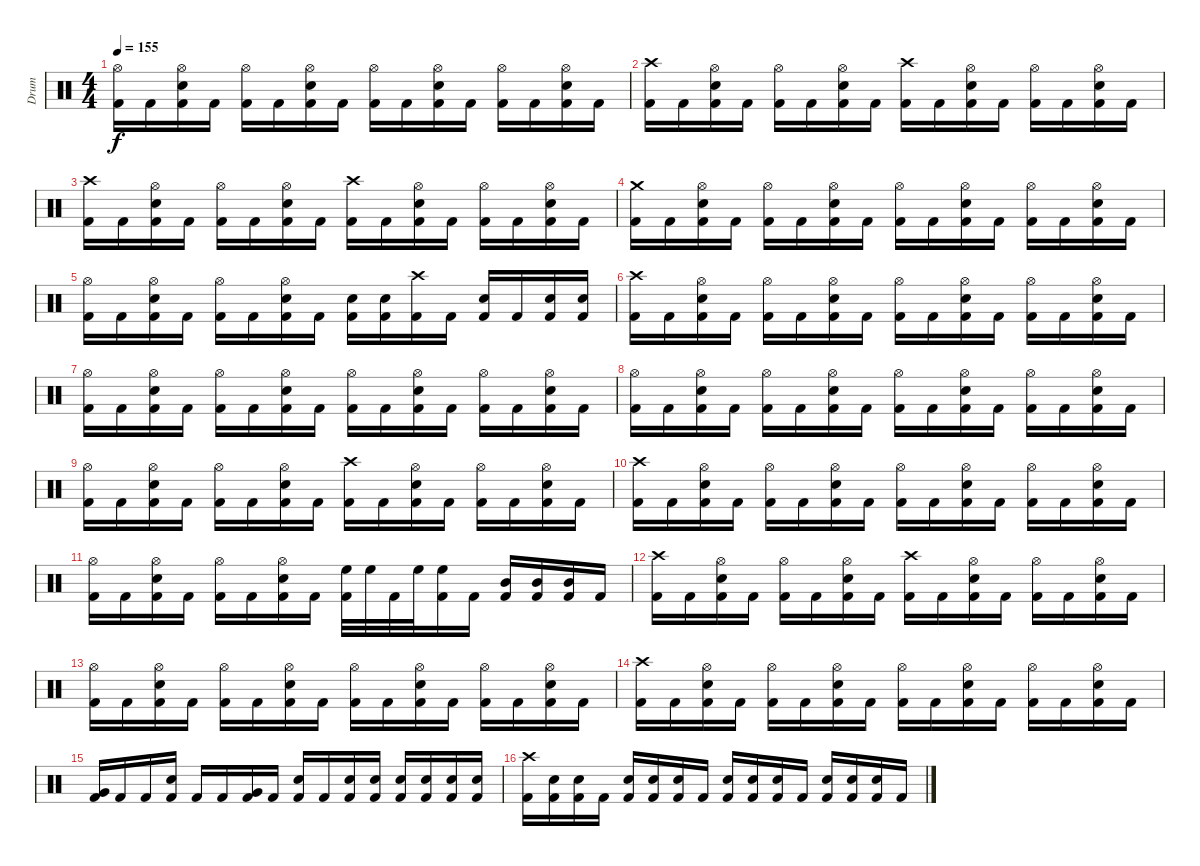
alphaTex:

\track ("Drum" "Drum") {instrument percussion}
\staff {score}
\articulation defaults
\ts (4 4)
\tempo 155
\clef neutral
\ks c
("Kick (hit) 2" "Hi-Hat (open)").16{dy f} "Kick (hit) 2".16 ("Kick (hit) 2" "Hi-Hat (open)" "Snare (hit) 2").16 "Kick (hit) 2".16 ("Kick (hit) 2" "Hi-Hat (open)").16 "Kick (hit) 2".16 ("Kick (hit) 2" "Hi-Hat (open)" "Snare (hit) 2").16 "Kick (hit) 2".16 ("Kick (hit) 2" "Hi-Hat (open)").16 "Kick (hit) 2".16 ("Kick (hit) 2" "Hi-Hat (open)" "Snare (hit) 2").16 "Kick (hit) 2".16 ("Kick (hit) 2" "Hi-Hat (open)").16 "Kick (hit) 2".16 ("Kick (hit) 2" "Hi-Hat (open)" "Snare (hit) 2").16 "Kick (hit) 2".16 |
("Kick (hit) 2" "Crash high (hit)").16 "Kick (hit) 2".16 ("Kick (hit) 2" "Hi-Hat (open)" "Snare (hit) 2").16 "Kick (hit) 2".16 ("Kick (hit) 2" "Hi-Hat (open)").16 "Kick (hit) 2".16 ("Kick (hit) 2" "Hi-Hat (open)" "Snare (hit) 2").16 "Kick (hit) 2".16 ("Kick (hit) 2" "Crash high (hit)").16 "Kick (hit) 2".16 ("Kick (hit) 2" "Hi-Hat (open)" "Snare (hit) 2").16 "Kick (hit) 2".16 ("Kick (hit) 2" "Hi-Hat (open)").16 "Kick (hit) 2".16 ("Kick (hit) 2" "Hi-Hat (open)" "Snare (hit) 2").16 "Kick (hit) 2".16 |
("Kick (hit) 2" "Crash high (hit)").16 "Kick (hit) 2".16 ("Kick (hit) 2" "Hi-Hat (open)" "Snare (hit) 2").16 "Kick (hit) 2".16 ("Kick (hit) 2" "Hi-Hat (open)").16 "Kick (hit) 2".16 ("Kick (hit) 2" "Hi-Hat (open)" "Snare (hit) 2").16 "Kick (hit) 2".16 ("Kick (hit) 2" "Crash high (hit)").16 "Kick (hit) 2".16 ("Kick (hit) 2" "Hi-Hat (open)" "Snare (hit) 2").16 "Kick (hit) 2".16 ("Kick (hit) 2" "Hi-Hat (open)").16 "Kick (hit) 2".16 ("Kick (hit) 2" "Hi-Hat (open)" "Snare (hit) 2").16 "Kick (hit) 2".16 |
("Kick (hit) 2" "Crash medium (hit)").16 "Kick (hit) 2".16 ("Kick (hit) 2" "Hi-Hat (open)" "Snare (hit) 2").16 "Kick (hit) 2".16 ("Kick (hit) 2" "Hi-Hat (open)").16 "Kick (hit) 2".16 ("Kick (hit) 2" "Hi-Hat (open)" "Snare (hit) 2").16 "Kick (hit) 2".16 ("Kick (hit) 2" "Hi-Hat (open)").16 "Kick (hit) 2".16 ("Kick (hit) 2" "Hi-Hat (open)" "Snare (hit) 2").16 "Kick (hit) 2".16 ("Kick (hit) 2" "Hi-Hat (open)").16 "Kick (hit) 2".16 ("Kick (hit) 2" "Hi-Hat (open)" "Snare (hit) 2").16 "Kick (hit) 2".16 |
("Kick (hit) 2" "Hi-Hat (open)").16 "Kick (hit) 2".16 ("Kick (hit) 2" "Hi-Hat (open)" "Snare (hit) 2").16 "Kick (hit) 2".16 ("Kick (hit) 2" "Hi-Hat (open)").16 "Kick (hit) 2".16 ("Kick (hit) 2" "Hi-Hat (open)" "Snare (hit) 2").16 "Kick (hit) 2".16 ("Kick (hit) 2" "Snare (hit) 2").16 ("Kick (hit) 2" "Snare (hit) 2").16 ("Kick (hit) 2" "Crash high (hit)").16 "Kick (hit) 2".16 ("Kick (hit) 2" "Snare (hit) 2").16 "Kick (hit) 2".16 ("Kick (hit) 2" "Snare (hit) 2").16 ("Kick (hit) 2" "Snare (hit) 2").16 |
("Kick (hit) 2" "Crash high (hit)").16 "Kick (hit) 2".16 ("Kick (hit) 2" "Hi-Hat (open)" "Snare (hit) 2").16 "Kick (hit) 2".16 ("Kick (hit) 2" "Hi-Hat (open)").16 "Kick (hit) 2".16 ("Kick (hit) 2" "Hi-Hat (open)" "Snare (hit) 2").16 "Kick (hit) 2".16 ("Kick (hit) 2" "Hi-Hat (open)").16 "Kick (hit) 2".16 ("Kick (hit) 2" "Hi-Hat (open)" "Snare (hit) 2").16 "Kick (hit) 2".16 ("Kick (hit) 2" "Hi-Hat (open)").16 "Kick (hit) 2".16 ("Kick (hit) 2" "Hi-Hat (open)" "Snare (hit) 2").16 "Kick (hit) 2".16 |
("Kick (hit) 2" "Hi-Hat (open)").16 "Kick (hit) 2".16 ("Kick (hit) 2" "Hi-Hat (open)" "Snare (hit) 2").16 "Kick (hit) 2".16 ("Kick (hit) 2" "Hi-Hat (open)").16 "Kick (hit) 2".16 ("Kick (hit) 2" "Hi-Hat (open)" "Snare (hit) 2").16 "Kick (hit) 2".16 ("Kick (hit) 2" "Hi-Hat (open)").16 "Kick (hit) 2".16 ("Kick (hit) 2" "Hi-Hat (open)" "Snare (hit) 2").16 "Kick (hit) 2".16 ("Kick (hit) 2" "Hi-Hat (open)").16 "Kick (hit) 2".16 ("Kick (hit) 2" "Hi-Hat (open)" "Snare (hit) 2").16 "Kick (hit) 2".16 |
("Kick (hit) 2" "Hi-Hat (open)").16 "Kick (hit) 2".16 ("Kick (hit) 2" "Hi-Hat (open)" "Snare (hit) 2").16 "Kick (hit) 2".16 ("Kick (hit) 2" "Hi-Hat (open)").16 "Kick (hit) 2".16 ("Kick (hit) 2" "Hi-Hat (open)" "Snare (hit) 2").16 "Kick (hit) 2".16 ("Kick (hit) 2" "Hi-Hat (open)").16 "Kick (hit) 2".16 ("Kick (hit) 2" "Hi-Hat (open)" "Snare (hit) 2").16 "Kick (hit) 2".16 ("Kick (hit) 2" "Hi-Hat (open)").16 "Kick (hit) 2".16 ("Kick (hit) 2" "Hi-Hat (open)" "Snare (hit) 2").16 "Kick (hit) 2".16 |
("Kick (hit) 2" "Hi-Hat (open)").16 "Kick (hit) 2".16 ("Kick (hit) 2" "Hi-Hat (open)" "Snare (hit) 2").16 "Kick (hit) 2".16 ("Kick (hit) 2" "Hi-Hat (open)").16 "Kick (hit) 2".16 ("Kick (hit) 2" "Hi-Hat (open)" "Snare (hit) 2").16 "Kick (hit) 2".16 ("Kick (hit) 2" "Crash high (hit)").16 "Kick (hit) 2".16 ("Kick (hit) 2" "Hi-Hat (open)" "Snare (hit) 2").16 "Kick (hit) 2".16 ("Kick (hit) 2" "Hi-Hat (open)").16 "Kick (hit) 2".16 ("Kick (hit) 2" "Hi-Hat (open)" "Snare (hit) 2").16 "Kick (hit) 2".16 |
("Kick (hit) 2" "Crash high (hit)").16 "Kick (hit) 2".16 ("Kick (hit) 2" "Hi-Hat (open)" "Snare (hit) 2").16 "Kick (hit) 2".16 ("Kick (hit) 2" "Hi-Hat (open)").16 "Kick (hit) 2".16 ("Kick (hit) 2" "Hi-Hat (open)" "Snare (hit) 2").16 "Kick (hit) 2".16 ("Kick (hit) 2" "Hi-Hat (open)").16 "Kick (hit) 2".16 ("Kick (hit) 2" "Hi-Hat (open)" "Snare (hit) 2").16 "Kick (hit) 2".16 ("Kick (hit) 2" "Hi-Hat (open)").16 "Kick (hit) 2".16 ("Kick (hit) 2" "Hi-Hat (open)" "Snare (hit) 2").16 "Kick (hit) 2".16 |
("Kick (hit) 2" "Hi-Hat (open)").16 "Kick (hit) 2".16 ("Kick (hit) 2" "Hi-Hat (open)" "Snare (hit) 2").16 "Kick (hit) 2".16 ("Kick (hit) 2" "Hi-Hat (open)").16 "Kick (hit) 2".16 ("Kick (hit) 2" "Hi-Hat (open)" "Snare (hit) 2").16 "Kick (hit) 2".16 ("Kick (hit) 2" "High Floor Tom (hit)").32 "High Floor Tom (hit)".32 "Kick (hit) 2".32 "High Floor Tom (hit)".32 ("Kick (hit) 2" "High Floor Tom (hit)").16 "Kick (hit) 2".16 ("Kick (hit) 2" "Mid Tom (hit)").16 ("Kick (hit) 2" "Mid Tom (hit)").16 ("Kick (hit) 2" "Mid Tom (hit)").16 "Kick (hit) 2".16 |
("Kick (hit) 2" "Crash high (hit)").16 "Kick (hit) 2".16 ("Kick (hit) 2" "Hi-Hat (open)" "Snare (hit) 2").16 "Kick (hit) 2".16 ("Kick (hit) 2" "Hi-Hat (open)").16 "Kick (hit) 2".16 ("Kick (hit) 2" "Hi-Hat (open)" "Snare (hit) 2").16 "Kick (hit) 2".16 ("Kick (hit) 2" "Crash high (hit)").16 "Kick (hit) 2".16 ("Kick (hit) 2" "Hi-Hat (open)" "Snare (hit) 2").16 "Kick (hit) 2".16 ("Kick (hit) 2" "Hi-Hat (open)").16 "Kick (hit) 2".16 ("Kick (hit) 2" "Hi-Hat (open)" "Snare (hit) 2").16 "Kick (hit) 2".16 |
("Kick (hit) 2" "Hi-Hat (open)").16 "Kick (hit) 2".16 ("Kick (hit) 2" "Hi-Hat (open)" "Snare (hit) 2").16 "Kick (hit) 2".16 ("Kick (hit) 2" "Hi-Hat (open)").16 "Kick (hit) 2".16 ("Kick (hit) 2" "Hi-Hat (open)" "Snare (hit) 2").16 "Kick (hit) 2".16 ("Kick (hit) 2" "Hi-Hat (open)").16 "Kick (hit) 2".16 ("Kick (hit) 2" "Hi-Hat (open)" "Snare (hit) 2").16 "Kick (hit) 2".16 ("Kick (hit) 2" "Hi-Hat (open)").16 "Kick (hit) 2".16 ("Kick (hit) 2" "Hi-Hat (open)" "Snare (hit) 2").16 "Kick (hit) 2".16 |
("Kick (hit) 2" "Crash high (hit)").16 "Kick (hit) 2".16 ("Kick (hit) 2" "Hi-Hat (open)" "Snare (hit) 2").16 "Kick (hit) 2".16 ("Kick (hit) 2" "Hi-Hat (open)").16 "Kick (hit) 2".16 ("Kick (hit) 2" "Hi-Hat (open)" "Snare (hit) 2").16 "Kick (hit) 2".16 ("Kick (hit) 2" "Hi-Hat (open)").16 "Kick (hit) 2".16 ("Kick (hit) 2" "Hi-Hat (open)" "Snare (hit) 2").16 "Kick (hit) 2".16 ("Kick (hit) 2" "Hi-Hat (open)").16 "Kick (hit) 2".16 ("Kick (hit) 2" "Hi-Hat (open)" "Snare (hit) 2").16 "Kick (hit) 2".16 |
("Kick (hit) 2" "Very Low Tom (hit)").16 "Kick (hit) 2".16 "Kick (hit) 2".16 ("Kick (hit) 2" "Snare (hit) 2").16 "Kick (hit) 2".16 "Kick (hit) 2".16 ("Kick (hit) 2" "Very Low Tom (hit)").16 "Kick (hit) 2".16 ("Kick (hit) 2" "Snare (hit) 2").16 "Kick (hit) 2".16 ("Kick (hit) 2" "Snare (hit) 2").16 ("Kick (hit) 2" "Snare (hit) 2").16 ("Kick (hit) 2" "Snare (hit) 2").16 ("Kick (hit) 2" "Snare (hit) 2").16 ("Kick (hit) 2" "Snare (hit) 2").16 ("Kick (hit) 2" "Snare (hit) 2").16 |
("Kick (hit) 2" "Crash high (hit)").16 ("Kick (hit) 2" "Snare (hit) 2").16 ("Kick (hit) 2" "Snare (hit) 2").16 "Kick (hit) 2".16 ("Kick (hit) 2" "Snare (hit) 2").16 ("Kick (hit) 2" "Snare (hit) 2").16 ("Kick (hit) 2" "Snare (hit) 2").16 "Kick (hit) 2".16 ("Kick (hit) 2" "Snare (hit) 2").16 ("Kick (hit) 2" "Snare (hit) 2").16 ("Kick (hit) 2" "Snare (hit) 2").16 "Kick (hit) 2".16 ("Kick (hit) 2" "Snare (hit) 2").16 ("Kick (hit) 2" "Snare (hit) 2").16 ("Kick (hit) 2" "Snare (hit) 2").16 "Kick (hit) 2".16
